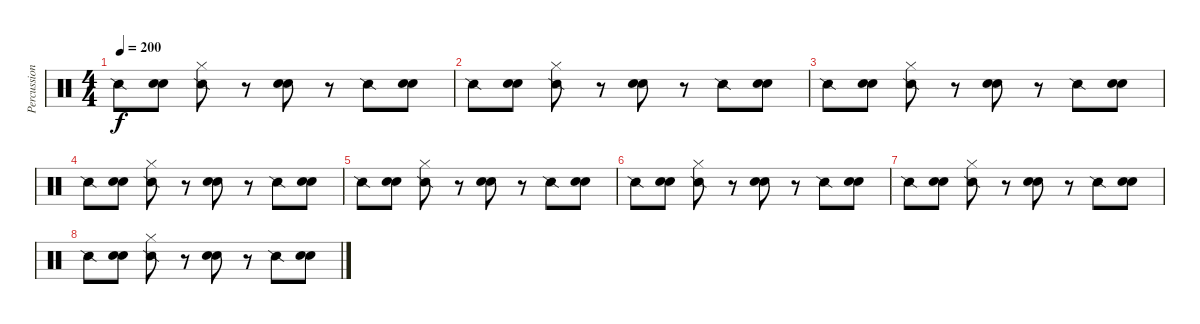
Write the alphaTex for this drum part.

\track ("Percussion" "Percussion") {instrument percussion}
\staff {score}
\articulation defaults
\ts (4 4)
\tempo 200
\clef neutral
\ks c "Snare (side stick) 2".8{dy f}
("Hand Clap (hit)" "Electric Snare (hit)").8 ("Snare (side stick) 2" "Hi-Hat (closed)").8 r.8 ("Hand Clap (hit)" "Electric Snare (hit)").8 r.8 "Snare (side stick) 2".8 ("Hand Clap (hit)" "Electric Snare (hit)").8 |
"Snare (side stick) 2".8 ("Hand Clap (hit)" "Electric Snare (hit)").8 ("Snare (side stick) 2" "Hi-Hat (closed)").8 r.8 ("Hand Clap (hit)" "Electric Snare (hit)").8 r.8 "Snare (side stick) 2".8 ("Hand Clap (hit)" "Electric Snare (hit)").8 |
"Snare (side stick) 2".8 ("Hand Clap (hit)" "Electric Snare (hit)").8 ("Snare (side stick) 2" "Hi-Hat (closed)").8 r.8 ("Hand Clap (hit)" "Electric Snare (hit)").8 r.8 "Snare (side stick) 2".8 ("Hand Clap (hit)" "Electric Snare (hit)").8 |
"Snare (side stick) 2".8 ("Hand Clap (hit)" "Electric Snare (hit)").8 ("Snare (side stick) 2" "Hi-Hat (closed)").8 r.8 ("Hand Clap (hit)" "Electric Snare (hit)").8 r.8 "Snare (side stick) 2".8 ("Hand Clap (hit)" "Electric Snare (hit)").8 |
"Snare (side stick) 2".8 ("Hand Clap (hit)" "Electric Snare (hit)").8 ("Snare (side stick) 2" "Hi-Hat (closed)").8 r.8 ("Hand Clap (hit)" "Electric Snare (hit)").8 r.8 "Snare (side stick) 2".8 ("Hand Clap (hit)" "Electric Snare (hit)").8 |
"Snare (side stick) 2".8 ("Hand Clap (hit)" "Electric Snare (hit)").8 ("Snare (side stick) 2" "Hi-Hat (closed)").8 r.8 ("Hand Clap (hit)" "Electric Snare (hit)").8 r.8 "Snare (side stick) 2".8 ("Hand Clap (hit)" "Electric Snare (hit)").8 |
"Snare (side stick) 2".8 ("Hand Clap (hit)" "Electric Snare (hit)").8 ("Snare (side stick) 2" "Hi-Hat (closed)").8 r.8 ("Hand Clap (hit)" "Electric Snare (hit)").8 r.8 "Snare (side stick) 2".8 ("Hand Clap (hit)" "Electric Snare (hit)").8 |
"Snare (side stick) 2".8 ("Hand Clap (hit)" "Electric Snare (hit)").8 ("Snare (side stick) 2" "Hi-Hat (closed)").8 r.8 ("Hand Clap (hit)" "Electric Snare (hit)").8 r.8 "Snare (side stick) 2".8 ("Hand Clap (hit)" "Electric Snare (hit)").8
